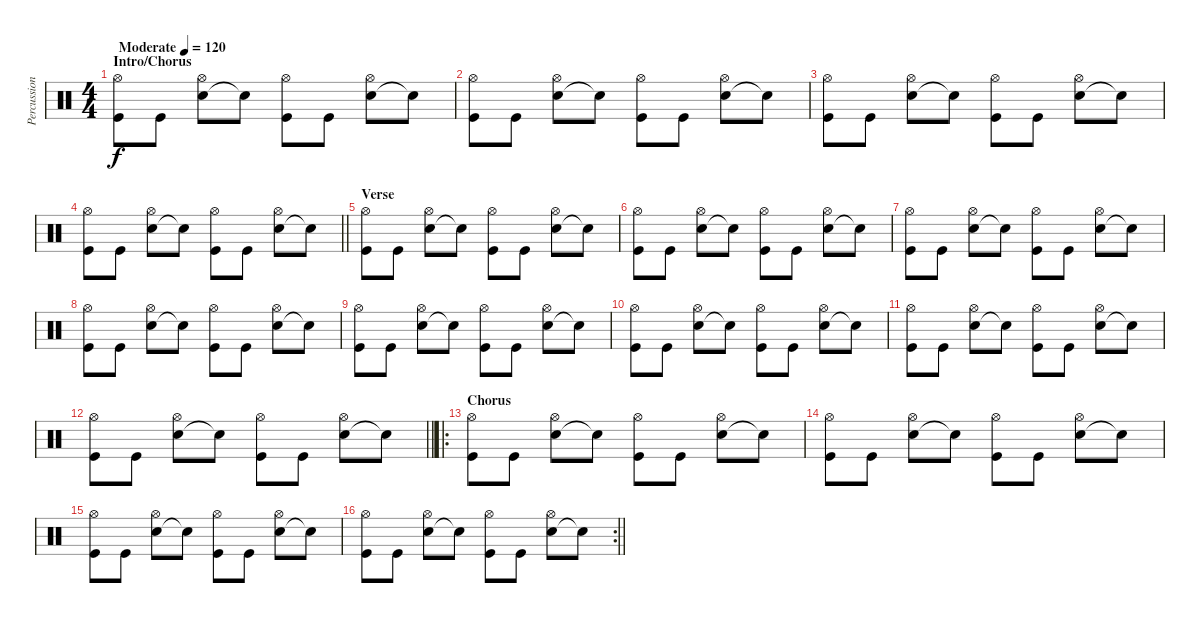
\track ("Percussion" "Percussion") {instrument percussion}
\staff {score}
\articulation defaults
\ts (4 4)
\section ("" "Intro/Chorus")
\tempo (120 "Moderate")
\clef neutral
\ks c
("Kick (hit)" "Hi-Hat (open)").8{dy f} "Kick (hit)".8 ("Snare (hit) 2" "Hi-Hat (open)").8 "Snare (hit) 2"{t}.8 ("Kick (hit)" "Hi-Hat (open)").8 "Kick (hit)".8 ("Snare (hit) 2" "Hi-Hat (open)").8 "Snare (hit) 2"{t}.8 |
("Kick (hit)" "Hi-Hat (open)").8 "Kick (hit)".8 ("Snare (hit) 2" "Hi-Hat (open)").8 "Snare (hit) 2"{t}.8 ("Kick (hit)" "Hi-Hat (open)").8 "Kick (hit)".8 ("Snare (hit) 2" "Hi-Hat (open)").8 "Snare (hit) 2"{t}.8 |
("Kick (hit)" "Hi-Hat (open)").8 "Kick (hit)".8 ("Snare (hit) 2" "Hi-Hat (open)").8 "Snare (hit) 2"{t}.8 ("Kick (hit)" "Hi-Hat (open)").8 "Kick (hit)".8 ("Snare (hit) 2" "Hi-Hat (open)").8 "Snare (hit) 2"{t}.8 |
\barLineRight lightlight
("Kick (hit)" "Hi-Hat (open)").8 "Kick (hit)".8 ("Snare (hit) 2" "Hi-Hat (open)").8 "Snare (hit) 2"{t}.8 ("Kick (hit)" "Hi-Hat (open)").8 "Kick (hit)".8 ("Snare (hit) 2" "Hi-Hat (open)").8 "Snare (hit) 2"{t}.8 |
\section ("" "Verse")
("Kick (hit)" "Hi-Hat (open)").8 "Kick (hit)".8 ("Snare (hit) 2" "Hi-Hat (open)").8 "Snare (hit) 2"{t}.8 ("Kick (hit)" "Hi-Hat (open)").8 "Kick (hit)".8 ("Snare (hit) 2" "Hi-Hat (open)").8 "Snare (hit) 2"{t}.8 |
("Kick (hit)" "Hi-Hat (open)").8 "Kick (hit)".8 ("Snare (hit) 2" "Hi-Hat (open)").8 "Snare (hit) 2"{t}.8 ("Kick (hit)" "Hi-Hat (open)").8 "Kick (hit)".8 ("Snare (hit) 2" "Hi-Hat (open)").8 "Snare (hit) 2"{t}.8 |
("Kick (hit)" "Hi-Hat (open)").8 "Kick (hit)".8 ("Snare (hit) 2" "Hi-Hat (open)").8 "Snare (hit) 2"{t}.8 ("Kick (hit)" "Hi-Hat (open)").8 "Kick (hit)".8 ("Snare (hit) 2" "Hi-Hat (open)").8 "Snare (hit) 2"{t}.8 |
("Kick (hit)" "Hi-Hat (open)").8 "Kick (hit)".8 ("Snare (hit) 2" "Hi-Hat (open)").8 "Snare (hit) 2"{t}.8 ("Kick (hit)" "Hi-Hat (open)").8 "Kick (hit)".8 ("Snare (hit) 2" "Hi-Hat (open)").8 "Snare (hit) 2"{t}.8 |
("Kick (hit)" "Hi-Hat (open)").8 "Kick (hit)".8 ("Snare (hit) 2" "Hi-Hat (open)").8 "Snare (hit) 2"{t}.8 ("Kick (hit)" "Hi-Hat (open)").8 "Kick (hit)".8 ("Snare (hit) 2" "Hi-Hat (open)").8 "Snare (hit) 2"{t}.8 |
("Kick (hit)" "Hi-Hat (open)").8 "Kick (hit)".8 ("Snare (hit) 2" "Hi-Hat (open)").8 "Snare (hit) 2"{t}.8 ("Kick (hit)" "Hi-Hat (open)").8 "Kick (hit)".8 ("Snare (hit) 2" "Hi-Hat (open)").8 "Snare (hit) 2"{t}.8 |
("Kick (hit)" "Hi-Hat (open)").8 "Kick (hit)".8 ("Snare (hit) 2" "Hi-Hat (open)").8 "Snare (hit) 2"{t}.8 ("Kick (hit)" "Hi-Hat (open)").8 "Kick (hit)".8 ("Snare (hit) 2" "Hi-Hat (open)").8 "Snare (hit) 2"{t}.8 |
\barLineRight lightlight
("Kick (hit)" "Hi-Hat (open)").8 "Kick (hit)".8 ("Snare (hit) 2" "Hi-Hat (open)").8 "Snare (hit) 2"{t}.8 ("Kick (hit)" "Hi-Hat (open)").8 "Kick (hit)".8 ("Snare (hit) 2" "Hi-Hat (open)").8 "Snare (hit) 2"{t}.8 |
\ro
\section ("" "Chorus")
("Kick (hit)" "Hi-Hat (open)").8 "Kick (hit)".8 ("Snare (hit) 2" "Hi-Hat (open)").8 "Snare (hit) 2"{t}.8 ("Kick (hit)" "Hi-Hat (open)").8 "Kick (hit)".8 ("Snare (hit) 2" "Hi-Hat (open)").8 "Snare (hit) 2"{t}.8 |
("Kick (hit)" "Hi-Hat (open)").8 "Kick (hit)".8 ("Snare (hit) 2" "Hi-Hat (open)").8 "Snare (hit) 2"{t}.8 ("Kick (hit)" "Hi-Hat (open)").8 "Kick (hit)".8 ("Snare (hit) 2" "Hi-Hat (open)").8 "Snare (hit) 2"{t}.8 |
("Kick (hit)" "Hi-Hat (open)").8 "Kick (hit)".8 ("Snare (hit) 2" "Hi-Hat (open)").8 "Snare (hit) 2"{t}.8 ("Kick (hit)" "Hi-Hat (open)").8 "Kick (hit)".8 ("Snare (hit) 2" "Hi-Hat (open)").8 "Snare (hit) 2"{t}.8 |
\rc 2
\barLineRight lightlight
("Kick (hit)" "Hi-Hat (open)").8 "Kick (hit)".8 ("Snare (hit) 2" "Hi-Hat (open)").8 "Snare (hit) 2"{t}.8 ("Kick (hit)" "Hi-Hat (open)").8 "Kick (hit)".8 ("Snare (hit) 2" "Hi-Hat (open)").8 "Snare (hit) 2"{t}.8
